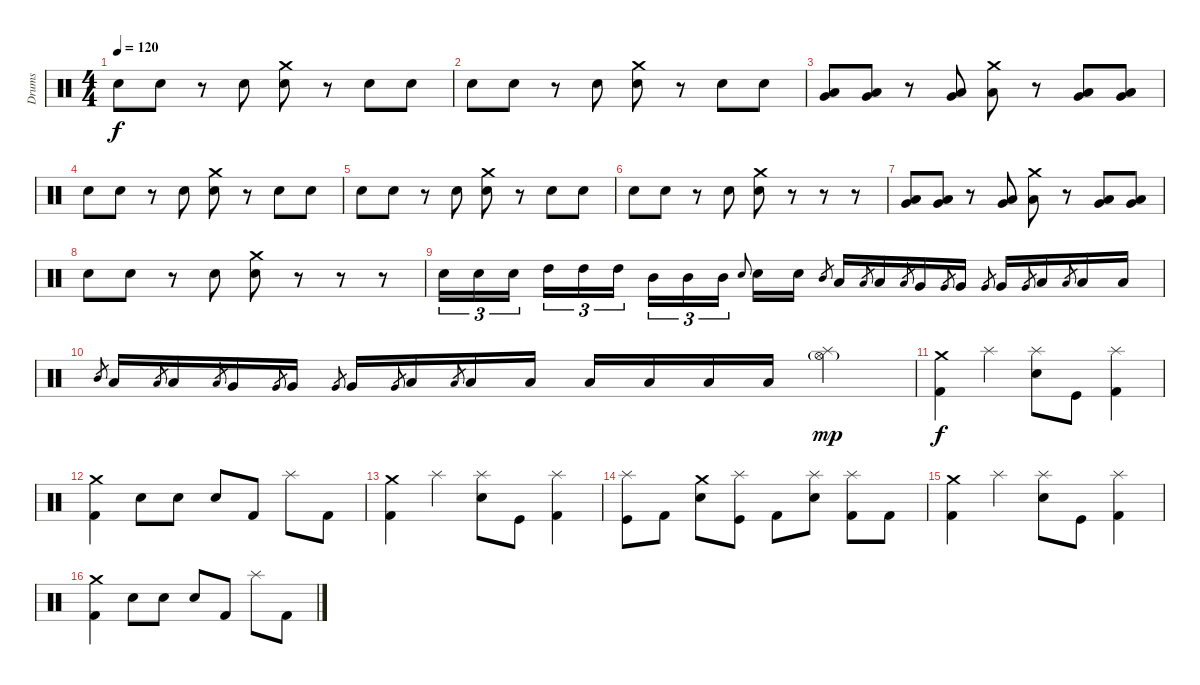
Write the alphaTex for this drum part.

\track ("Drums" "Drums") {instrument percussion}
\staff {score}
\articulation defaults
\ts (4 4)
\tempo 120
\clef neutral
\ks c "Snare (hit) 2".8{dy f} "Snare (hit) 2".8
r.8 "Snare (hit) 2".8 ("Crash medium (hit)" "Snare (hit) 2").8 r.8 "Snare (hit) 2".8 "Snare (hit) 2".8 |
"Snare (hit) 2".8 "Snare (hit) 2".8 r.8 "Snare (hit) 2".8 ("Crash medium (hit)" "Snare (hit) 2").8 r.8 "Snare (hit) 2".8 "Snare (hit) 2".8 |
("Low Tom (hit)" "Very Low Tom (hit)").8 ("Very Low Tom (hit)" "Low Tom (hit)").8 r.8 ("Very Low Tom (hit)" "Low Tom (hit)").8 ("Crash medium (hit)" "Low Tom (hit)").8 r.8 ("Very Low Tom (hit)" "Low Tom (hit)").8 ("Very Low Tom (hit)" "Low Tom (hit)").8 |
"Snare (hit) 2".8 "Snare (hit) 2".8 r.8 "Snare (hit) 2".8 ("Crash medium (hit)" "Snare (hit) 2").8 r.8 "Snare (hit) 2".8 "Snare (hit) 2".8 |
"Snare (hit) 2".8 "Snare (hit) 2".8 r.8 "Snare (hit) 2".8 ("Crash medium (hit)" "Snare (hit) 2").8 r.8 "Snare (hit) 2".8 "Snare (hit) 2".8 |
"Snare (hit) 2".8 "Snare (hit) 2".8 r.8 "Snare (hit) 2".8 ("Crash medium (hit)" "Snare (hit) 2").8 r.8 r.8 r.8 |
("Low Tom (hit)" "Very Low Tom (hit)").8 ("Very Low Tom (hit)" "Low Tom (hit)").8 r.8 ("Very Low Tom (hit)" "Low Tom (hit)").8 ("Crash medium (hit)" "Low Tom (hit)").8 r.8 ("Very Low Tom (hit)" "Low Tom (hit)").8 ("Very Low Tom (hit)" "Low Tom (hit)").8 |
"Snare (hit) 2".8 "Snare (hit) 2".8 r.8 "Snare (hit) 2".8 ("Crash medium (hit)" "Snare (hit) 2").8 r.8 r.8 r.8 |
"Snare (hit) 2".16{tu (3 2)} "Snare (hit) 2".16{tu (3 2)} "Snare (hit) 2".16{tu (3 2) beam splitsecondary} "High Tom (hit)".16{tu (3 2)} "High Tom (hit)".16{tu (3 2)} "High Tom (hit)".16{tu (3 2)} "Mid Tom (hit)".16{tu (3 2)} "Mid Tom (hit)".16{tu (3 2)} "Mid Tom (hit)".16{tu (3 2)} "Snare (hit) 2".8{gr onbeat beam splitsecondary} "Snare (hit) 2".16 "Snare (hit) 2".16 "Mid Tom (hit)".8{gr} "Low Tom (hit)".16 "Low Tom (hit)".8{gr} "Low Tom (hit)".16 "Low Tom (hit)".8{gr} "Very Low Tom (hit)".16 "Very Low Tom (hit)".8{gr} "Very Low Tom (hit)".16 "Very Low Tom (hit)".8{gr} "Very Low Tom (hit)".16 "Very Low Tom (hit)".8{gr} "Low Floor Tom (hit)".16 "Low Floor Tom (hit)".8{gr} "Low Floor Tom (hit)".16 "Low Floor Tom (hit)".16 |
"Mid Tom (hit)".8{gr} "Low Tom (hit)".16 "Low Tom (hit)".8{gr} "Low Tom (hit)".16 "Low Tom (hit)".8{gr} "Very Low Tom (hit)".16 "Very Low Tom (hit)".8{gr} "Very Low Tom (hit)".16 "Very Low Tom (hit)".8{gr} "Very Low Tom (hit)".16 "Very Low Tom (hit)".8{gr} "Low Floor Tom (hit)".16 "Low Floor Tom (hit)".8{gr} "Low Floor Tom (hit)".16 "Low Floor Tom (hit)".16 "Low Floor Tom (hit)".16 "Low Floor Tom (hit)".16 "Low Floor Tom (hit)".16 "Low Floor Tom (hit)".16 ("Hi-Hat (open)"{g} "Splash (hit)").4{dy mp} |
("Crash medium (hit)" "Kick (hit) 2").4{dy f} "Splash (hit)".4 ("Splash (hit)" "Snare (hit) 2").8 "Kick (hit)".8 ("Splash (hit)" "Kick (hit) 2").4 |
("Crash medium (hit)" "Kick (hit) 2").4 "Snare (hit) 2".8 "Snare (hit) 2".8 "Snare (hit) 2".8 "Kick (hit) 2".8 "Splash (hit)".8 "Kick (hit) 2".8 |
("Crash medium (hit)" "Kick (hit) 2").4 "Splash (hit)".4 ("Splash (hit)" "Snare (hit) 2").8 "Kick (hit)".8 ("Splash (hit)" "Kick (hit) 2").4 |
("Splash (hit)" "Kick (hit)").8 "Kick (hit) 2".8 ("Crash medium (hit)" "Snare (hit) 2").8 ("Splash (hit)" "Kick (hit)").8 "Kick (hit) 2".8 ("Splash (hit)" "Snare (hit) 2").8 ("Splash (hit)" "Kick (hit) 2").8 "Kick (hit) 2".8 |
("Crash medium (hit)" "Kick (hit) 2").4 "Splash (hit)".4 ("Splash (hit)" "Snare (hit) 2").8 "Kick (hit)".8 ("Splash (hit)" "Kick (hit) 2").4 |
("Crash medium (hit)" "Kick (hit) 2").4 "Snare (hit) 2".8 "Snare (hit) 2".8 "Snare (hit) 2".8 "Kick (hit) 2".8 "Splash (hit)".8 "Kick (hit) 2".8
